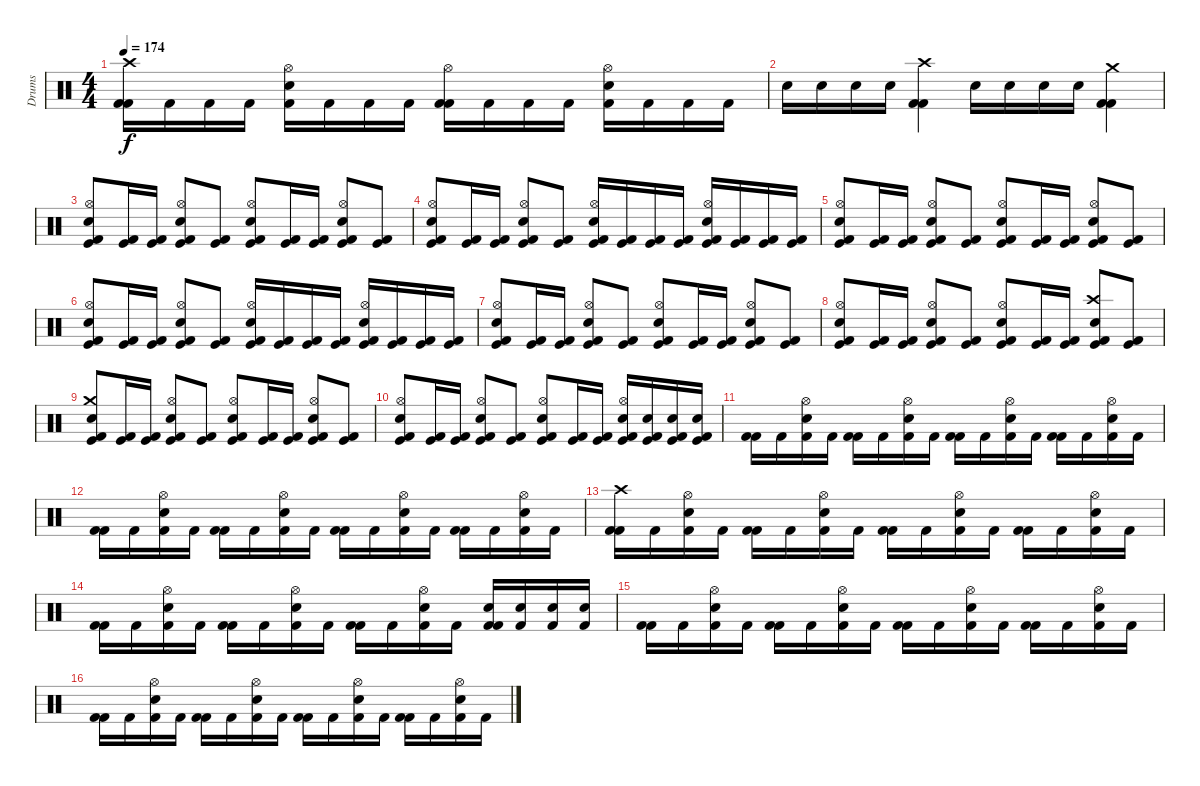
\track ("Drums" "Drums") {instrument percussion}
\staff {score}
\articulation defaults
\ts (4 4)
\tempo 174
\clef neutral
\ks c
("Kick (hit) 2" "Kick (hit) 2" "Crash high (hit)").16{dy f} "Kick (hit) 2".16 "Kick (hit) 2".16 "Kick (hit) 2".16 ("Kick (hit) 2" "Electric Snare (hit)" "Hi-Hat (open)").16 "Kick (hit) 2".16 "Kick (hit) 2".16 "Kick (hit) 2".16 ("Kick (hit) 2" "Kick (hit) 2" "Hi-Hat (open)").16 "Kick (hit) 2".16 "Kick (hit) 2".16 "Kick (hit) 2".16 ("Kick (hit) 2" "Electric Snare (hit)" "Hi-Hat (open)").16 "Kick (hit) 2".16 "Kick (hit) 2".16 "Kick (hit) 2".16 |
"Electric Snare (hit)".16 "Electric Snare (hit)".16 "Electric Snare (hit)".16 "Electric Snare (hit)".16 ("Kick (hit) 2" "Kick (hit) 2" "Crash high (hit)").4 "Electric Snare (hit)".16 "Electric Snare (hit)".16 "Electric Snare (hit)".16 "Electric Snare (hit)".16 ("Kick (hit) 2" "Kick (hit) 2" "Crash medium (hit)").4 |
("Kick (hit)" "Kick (hit) 2" "Electric Snare (hit)" "Hi-Hat (open)").8 ("Kick (hit)" "Kick (hit) 2").16 ("Kick (hit)" "Kick (hit) 2").16 ("Kick (hit)" "Kick (hit) 2" "Electric Snare (hit)" "Hi-Hat (open)").8 ("Kick (hit)" "Kick (hit) 2").8 ("Kick (hit)" "Kick (hit) 2" "Electric Snare (hit)" "Hi-Hat (open)").8 ("Kick (hit)" "Kick (hit) 2").16 ("Kick (hit)" "Kick (hit) 2").16 ("Kick (hit)" "Kick (hit) 2" "Electric Snare (hit)" "Hi-Hat (open)").8 ("Kick (hit)" "Kick (hit) 2").8 |
("Kick (hit)" "Kick (hit) 2" "Electric Snare (hit)" "Hi-Hat (open)").8 ("Kick (hit)" "Kick (hit) 2").16 ("Kick (hit)" "Kick (hit) 2").16 ("Kick (hit)" "Kick (hit) 2" "Electric Snare (hit)" "Hi-Hat (open)").8 ("Kick (hit)" "Kick (hit) 2").8 ("Kick (hit)" "Kick (hit) 2" "Electric Snare (hit)" "Hi-Hat (open)").16 ("Kick (hit)" "Kick (hit) 2").16 ("Kick (hit)" "Kick (hit) 2").16 ("Kick (hit)" "Kick (hit) 2").16 ("Kick (hit)" "Kick (hit) 2" "Electric Snare (hit)" "Hi-Hat (open)").16 ("Kick (hit)" "Kick (hit) 2").16 ("Kick (hit)" "Kick (hit) 2").16 ("Kick (hit)" "Kick (hit) 2").16 |
("Kick (hit)" "Kick (hit) 2" "Electric Snare (hit)" "Hi-Hat (open)").8 ("Kick (hit)" "Kick (hit) 2").16 ("Kick (hit)" "Kick (hit) 2").16 ("Kick (hit)" "Kick (hit) 2" "Electric Snare (hit)" "Hi-Hat (open)").8 ("Kick (hit)" "Kick (hit) 2").8 ("Kick (hit)" "Kick (hit) 2" "Electric Snare (hit)" "Hi-Hat (open)").8 ("Kick (hit)" "Kick (hit) 2").16 ("Kick (hit)" "Kick (hit) 2").16 ("Kick (hit)" "Kick (hit) 2" "Electric Snare (hit)" "Hi-Hat (open)").8 ("Kick (hit)" "Kick (hit) 2").8 |
("Kick (hit)" "Kick (hit) 2" "Electric Snare (hit)" "Hi-Hat (open)").8 ("Kick (hit)" "Kick (hit) 2").16 ("Kick (hit)" "Kick (hit) 2").16 ("Kick (hit)" "Kick (hit) 2" "Electric Snare (hit)" "Hi-Hat (open)").8 ("Kick (hit)" "Kick (hit) 2").8 ("Kick (hit)" "Kick (hit) 2" "Electric Snare (hit)" "Hi-Hat (open)").16 ("Kick (hit)" "Kick (hit) 2").16 ("Kick (hit)" "Kick (hit) 2").16 ("Kick (hit)" "Kick (hit) 2").16 ("Kick (hit)" "Kick (hit) 2" "Electric Snare (hit)" "Hi-Hat (open)").16 ("Kick (hit)" "Kick (hit) 2").16 ("Kick (hit)" "Kick (hit) 2").16 ("Kick (hit)" "Kick (hit) 2").16 |
("Kick (hit)" "Kick (hit) 2" "Electric Snare (hit)" "Hi-Hat (open)").8 ("Kick (hit)" "Kick (hit) 2").16 ("Kick (hit)" "Kick (hit) 2").16 ("Kick (hit)" "Kick (hit) 2" "Electric Snare (hit)" "Hi-Hat (open)").8 ("Kick (hit)" "Kick (hit) 2").8 ("Kick (hit)" "Kick (hit) 2" "Electric Snare (hit)" "Hi-Hat (open)").8 ("Kick (hit)" "Kick (hit) 2").16 ("Kick (hit)" "Kick (hit) 2").16 ("Kick (hit)" "Kick (hit) 2" "Electric Snare (hit)" "Hi-Hat (open)").8 ("Kick (hit)" "Kick (hit) 2").8 |
("Kick (hit)" "Kick (hit) 2" "Electric Snare (hit)" "Hi-Hat (open)").8 ("Kick (hit)" "Kick (hit) 2").16 ("Kick (hit)" "Kick (hit) 2").16 ("Kick (hit)" "Kick (hit) 2" "Electric Snare (hit)" "Hi-Hat (open)").8 ("Kick (hit)" "Kick (hit) 2").8 ("Kick (hit)" "Kick (hit) 2" "Electric Snare (hit)" "Hi-Hat (open)").8 ("Kick (hit)" "Kick (hit) 2").16 ("Kick (hit)" "Kick (hit) 2").16 ("Kick (hit)" "Kick (hit) 2" "Electric Snare (hit)" "Crash high (hit)").8 ("Kick (hit)" "Kick (hit) 2").8 |
("Kick (hit)" "Kick (hit) 2" "Electric Snare (hit)" "Crash medium (hit)").8 ("Kick (hit)" "Kick (hit) 2").16 ("Kick (hit)" "Kick (hit) 2").16 ("Kick (hit)" "Kick (hit) 2" "Electric Snare (hit)" "Hi-Hat (open)").8 ("Kick (hit)" "Kick (hit) 2").8 ("Kick (hit)" "Kick (hit) 2" "Electric Snare (hit)" "Hi-Hat (open)").8 ("Kick (hit)" "Kick (hit) 2").16 ("Kick (hit)" "Kick (hit) 2").16 ("Kick (hit)" "Kick (hit) 2" "Electric Snare (hit)" "Hi-Hat (open)").8 ("Kick (hit)" "Kick (hit) 2").8 |
("Kick (hit)" "Kick (hit) 2" "Electric Snare (hit)" "Hi-Hat (open)").8 ("Kick (hit)" "Kick (hit) 2").16 ("Kick (hit)" "Kick (hit) 2").16 ("Kick (hit)" "Kick (hit) 2" "Electric Snare (hit)" "Hi-Hat (open)").8 ("Kick (hit)" "Kick (hit) 2").8 ("Kick (hit)" "Kick (hit) 2" "Electric Snare (hit)" "Hi-Hat (open)").8 ("Kick (hit)" "Kick (hit) 2").16 ("Kick (hit)" "Kick (hit) 2").16 ("Kick (hit)" "Kick (hit) 2" "Electric Snare (hit)" "Hi-Hat (open)").16 ("Kick (hit)" "Kick (hit) 2" "Electric Snare (hit)").16 ("Kick (hit)" "Kick (hit) 2" "Electric Snare (hit)").16 ("Kick (hit)" "Kick (hit) 2" "Electric Snare (hit)").16 |
("Kick (hit) 2" "Kick (hit) 2").16 "Kick (hit) 2".16 ("Kick (hit) 2" "Electric Snare (hit)" "Hi-Hat (open)").16 "Kick (hit) 2".16 ("Kick (hit) 2" "Kick (hit) 2").16 "Kick (hit) 2".16 ("Kick (hit) 2" "Electric Snare (hit)" "Hi-Hat (open)").16 "Kick (hit) 2".16 ("Kick (hit) 2" "Kick (hit) 2").16 "Kick (hit) 2".16 ("Kick (hit) 2" "Electric Snare (hit)" "Hi-Hat (open)").16 "Kick (hit) 2".16 ("Kick (hit) 2" "Kick (hit) 2").16 "Kick (hit) 2".16 ("Kick (hit) 2" "Electric Snare (hit)" "Hi-Hat (open)").16 "Kick (hit) 2".16 |
("Kick (hit) 2" "Kick (hit) 2").16 "Kick (hit) 2".16 ("Kick (hit) 2" "Electric Snare (hit)" "Hi-Hat (open)").16 "Kick (hit) 2".16 ("Kick (hit) 2" "Kick (hit) 2").16 "Kick (hit) 2".16 ("Kick (hit) 2" "Electric Snare (hit)" "Hi-Hat (open)").16 "Kick (hit) 2".16 ("Kick (hit) 2" "Kick (hit) 2").16 "Kick (hit) 2".16 ("Kick (hit) 2" "Electric Snare (hit)" "Hi-Hat (open)").16 "Kick (hit) 2".16 ("Kick (hit) 2" "Kick (hit) 2").16 "Kick (hit) 2".16 ("Kick (hit) 2" "Electric Snare (hit)" "Hi-Hat (open)").16 "Kick (hit) 2".16 |
("Kick (hit) 2" "Kick (hit) 2" "Crash high (hit)").16 "Kick (hit) 2".16 ("Kick (hit) 2" "Electric Snare (hit)" "Hi-Hat (open)").16 "Kick (hit) 2".16 ("Kick (hit) 2" "Kick (hit) 2").16 "Kick (hit) 2".16 ("Kick (hit) 2" "Electric Snare (hit)" "Hi-Hat (open)").16 "Kick (hit) 2".16 ("Kick (hit) 2" "Kick (hit) 2").16 "Kick (hit) 2".16 ("Kick (hit) 2" "Electric Snare (hit)" "Hi-Hat (open)").16 "Kick (hit) 2".16 ("Kick (hit) 2" "Kick (hit) 2").16 "Kick (hit) 2".16 ("Kick (hit) 2" "Electric Snare (hit)" "Hi-Hat (open)").16 "Kick (hit) 2".16 |
("Kick (hit) 2" "Kick (hit) 2").16 "Kick (hit) 2".16 ("Kick (hit) 2" "Electric Snare (hit)" "Hi-Hat (open)").16 "Kick (hit) 2".16 ("Kick (hit) 2" "Kick (hit) 2").16 "Kick (hit) 2".16 ("Kick (hit) 2" "Electric Snare (hit)" "Hi-Hat (open)").16 "Kick (hit) 2".16 ("Kick (hit) 2" "Kick (hit) 2").16 "Kick (hit) 2".16 ("Kick (hit) 2" "Electric Snare (hit)" "Hi-Hat (open)").16 "Kick (hit) 2".16 ("Kick (hit) 2" "Kick (hit) 2" "Electric Snare (hit)").16 ("Kick (hit) 2" "Electric Snare (hit)").16 ("Kick (hit) 2" "Electric Snare (hit)").16 ("Kick (hit) 2" "Electric Snare (hit)").16 |
("Kick (hit) 2" "Kick (hit) 2").16 "Kick (hit) 2".16 ("Kick (hit) 2" "Electric Snare (hit)" "Hi-Hat (open)").16 "Kick (hit) 2".16 ("Kick (hit) 2" "Kick (hit) 2").16 "Kick (hit) 2".16 ("Kick (hit) 2" "Electric Snare (hit)" "Hi-Hat (open)").16 "Kick (hit) 2".16 ("Kick (hit) 2" "Kick (hit) 2").16 "Kick (hit) 2".16 ("Kick (hit) 2" "Electric Snare (hit)" "Hi-Hat (open)").16 "Kick (hit) 2".16 ("Kick (hit) 2" "Kick (hit) 2").16 "Kick (hit) 2".16 ("Kick (hit) 2" "Electric Snare (hit)" "Hi-Hat (open)").16 "Kick (hit) 2".16 |
("Kick (hit) 2" "Kick (hit) 2").16 "Kick (hit) 2".16 ("Kick (hit) 2" "Electric Snare (hit)" "Hi-Hat (open)").16 "Kick (hit) 2".16 ("Kick (hit) 2" "Kick (hit) 2").16 "Kick (hit) 2".16 ("Kick (hit) 2" "Electric Snare (hit)" "Hi-Hat (open)").16 "Kick (hit) 2".16 ("Kick (hit) 2" "Kick (hit) 2").16 "Kick (hit) 2".16 ("Kick (hit) 2" "Electric Snare (hit)" "Hi-Hat (open)").16 "Kick (hit) 2".16 ("Kick (hit) 2" "Kick (hit) 2").16 "Kick (hit) 2".16 ("Kick (hit) 2" "Electric Snare (hit)" "Hi-Hat (open)").16 "Kick (hit) 2".16
